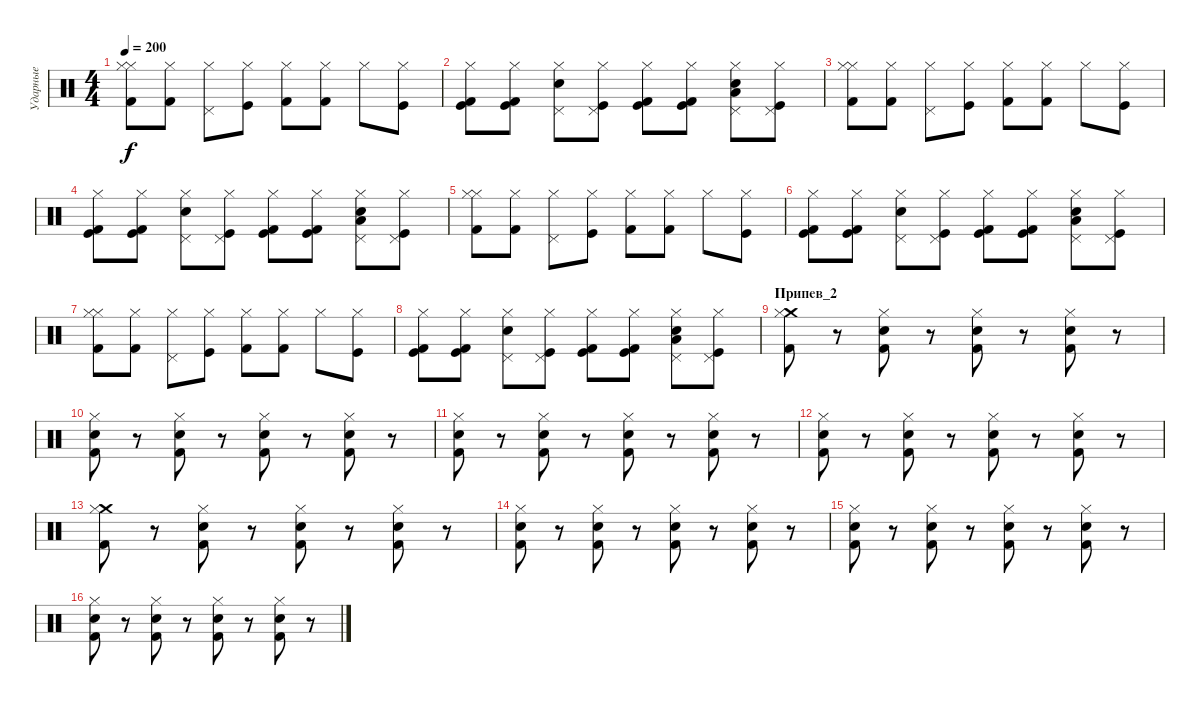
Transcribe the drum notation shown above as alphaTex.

\track ("Ударные" "Ударные") {instrument percussion}
\staff {score}
\articulation defaults
\ts (4 4)
\tempo 200
\clef neutral
\ks c
("Hi-Hat (closed)" "Kick (hit) 2" "Hi-Hat (closed)").8{dy f} ("Hi-Hat (closed)" "Kick (hit) 2").8 ("Hi-Hat (closed)" "Pedal Hi-Hat (hit)").8 ("Hi-Hat (closed)" "Kick (hit)").8 ("Hi-Hat (closed)" "Kick (hit) 2").8 ("Hi-Hat (closed)" "Kick (hit) 2").8 "Hi-Hat (closed)".8 ("Hi-Hat (closed)" "Kick (hit)").8 |
("Kick (hit)" "Kick (hit) 2" "Hi-Hat (closed)").8 ("Kick (hit)" "Kick (hit) 2" "Hi-Hat (closed)").8 ("Electric Snare (hit)" "Pedal Hi-Hat (hit)" "Hi-Hat (closed)").8 ("Pedal Hi-Hat (hit)" "Kick (hit)" "Hi-Hat (closed)").8 ("Kick (hit)" "Kick (hit) 2" "Hi-Hat (closed)").8 ("Kick (hit)" "Kick (hit) 2" "Hi-Hat (closed)").8 ("Low Tom (hit)" "Electric Snare (hit)" "Pedal Hi-Hat (hit)" "Hi-Hat (closed)").8 ("Pedal Hi-Hat (hit)" "Kick (hit)" "Hi-Hat (closed)").8 |
("Hi-Hat (closed)" "Kick (hit) 2" "Hi-Hat (closed)").8 ("Hi-Hat (closed)" "Kick (hit) 2").8 ("Hi-Hat (closed)" "Pedal Hi-Hat (hit)").8 ("Hi-Hat (closed)" "Kick (hit)").8 ("Hi-Hat (closed)" "Kick (hit) 2").8 ("Hi-Hat (closed)" "Kick (hit) 2").8 "Hi-Hat (closed)".8 ("Hi-Hat (closed)" "Kick (hit)").8 |
("Kick (hit)" "Kick (hit) 2" "Hi-Hat (closed)").8 ("Kick (hit)" "Kick (hit) 2" "Hi-Hat (closed)").8 ("Electric Snare (hit)" "Pedal Hi-Hat (hit)" "Hi-Hat (closed)").8 ("Pedal Hi-Hat (hit)" "Kick (hit)" "Hi-Hat (closed)").8 ("Kick (hit)" "Kick (hit) 2" "Hi-Hat (closed)").8 ("Kick (hit)" "Kick (hit) 2" "Hi-Hat (closed)").8 ("Low Tom (hit)" "Electric Snare (hit)" "Pedal Hi-Hat (hit)" "Hi-Hat (closed)").8 ("Pedal Hi-Hat (hit)" "Kick (hit)" "Hi-Hat (closed)").8 |
("Hi-Hat (closed)" "Kick (hit) 2" "Hi-Hat (closed)").8 ("Hi-Hat (closed)" "Kick (hit) 2").8 ("Hi-Hat (closed)" "Pedal Hi-Hat (hit)").8 ("Hi-Hat (closed)" "Kick (hit)").8 ("Hi-Hat (closed)" "Kick (hit) 2").8 ("Hi-Hat (closed)" "Kick (hit) 2").8 "Hi-Hat (closed)".8 ("Hi-Hat (closed)" "Kick (hit)").8 |
("Kick (hit)" "Kick (hit) 2" "Hi-Hat (closed)").8 ("Kick (hit)" "Kick (hit) 2" "Hi-Hat (closed)").8 ("Electric Snare (hit)" "Pedal Hi-Hat (hit)" "Hi-Hat (closed)").8 ("Pedal Hi-Hat (hit)" "Kick (hit)" "Hi-Hat (closed)").8 ("Kick (hit)" "Kick (hit) 2" "Hi-Hat (closed)").8 ("Kick (hit)" "Kick (hit) 2" "Hi-Hat (closed)").8 ("Low Tom (hit)" "Electric Snare (hit)" "Pedal Hi-Hat (hit)" "Hi-Hat (closed)").8 ("Pedal Hi-Hat (hit)" "Kick (hit)" "Hi-Hat (closed)").8 |
("Hi-Hat (closed)" "Kick (hit) 2" "Hi-Hat (closed)").8 ("Hi-Hat (closed)" "Kick (hit) 2").8 ("Hi-Hat (closed)" "Pedal Hi-Hat (hit)").8 ("Hi-Hat (closed)" "Kick (hit)").8 ("Hi-Hat (closed)" "Kick (hit) 2").8 ("Hi-Hat (closed)" "Kick (hit) 2").8 "Hi-Hat (closed)".8 ("Hi-Hat (closed)" "Kick (hit)").8 |
("Kick (hit)" "Kick (hit) 2" "Hi-Hat (closed)").8 ("Kick (hit)" "Kick (hit) 2" "Hi-Hat (closed)").8 ("Electric Snare (hit)" "Pedal Hi-Hat (hit)" "Hi-Hat (closed)").8 ("Pedal Hi-Hat (hit)" "Kick (hit)" "Hi-Hat (closed)").8 ("Kick (hit)" "Kick (hit) 2" "Hi-Hat (closed)").8 ("Kick (hit)" "Kick (hit) 2" "Hi-Hat (closed)").8 ("Low Tom (hit)" "Electric Snare (hit)" "Pedal Hi-Hat (hit)" "Hi-Hat (closed)").8 ("Pedal Hi-Hat (hit)" "Kick (hit)" "Hi-Hat (closed)").8 |
\section ("" "Припев_2")
("Crash medium (hit)" "Kick (hit) 2" "Hi-Hat (closed)").8 r.8 ("Snare (hit) 2" "Kick (hit) 2" "Hi-Hat (closed)").8 r.8 ("Snare (hit) 2" "Kick (hit) 2" "Hi-Hat (closed)").8 r.8 ("Snare (hit) 2" "Kick (hit) 2" "Hi-Hat (closed)").8 r.8 |
("Snare (hit) 2" "Kick (hit) 2" "Hi-Hat (closed)").8 r.8 ("Snare (hit) 2" "Kick (hit) 2" "Hi-Hat (closed)").8 r.8 ("Snare (hit) 2" "Kick (hit) 2" "Hi-Hat (closed)").8 r.8 ("Snare (hit) 2" "Kick (hit) 2" "Hi-Hat (closed)").8 r.8 |
("Snare (hit) 2" "Kick (hit) 2" "Hi-Hat (closed)").8 r.8 ("Snare (hit) 2" "Kick (hit) 2" "Hi-Hat (closed)").8 r.8 ("Snare (hit) 2" "Kick (hit) 2" "Hi-Hat (closed)").8 r.8 ("Snare (hit) 2" "Kick (hit) 2" "Hi-Hat (closed)").8 r.8 |
("Snare (hit) 2" "Kick (hit) 2" "Hi-Hat (closed)").8 r.8 ("Snare (hit) 2" "Kick (hit) 2" "Hi-Hat (closed)").8 r.8 ("Snare (hit) 2" "Kick (hit) 2" "Hi-Hat (closed)").8 r.8 ("Snare (hit) 2" "Kick (hit) 2" "Hi-Hat (closed)").8 r.8 |
("Crash medium (hit)" "Kick (hit) 2" "Hi-Hat (closed)").8 r.8 ("Snare (hit) 2" "Kick (hit) 2" "Hi-Hat (closed)").8 r.8 ("Snare (hit) 2" "Kick (hit) 2" "Hi-Hat (closed)").8 r.8 ("Snare (hit) 2" "Kick (hit) 2" "Hi-Hat (closed)").8 r.8 |
("Snare (hit) 2" "Kick (hit) 2" "Hi-Hat (closed)").8 r.8 ("Snare (hit) 2" "Kick (hit) 2" "Hi-Hat (closed)").8 r.8 ("Snare (hit) 2" "Kick (hit) 2" "Hi-Hat (closed)").8 r.8 ("Snare (hit) 2" "Kick (hit) 2" "Hi-Hat (closed)").8 r.8 |
("Snare (hit) 2" "Kick (hit) 2" "Hi-Hat (closed)").8 r.8 ("Snare (hit) 2" "Kick (hit) 2" "Hi-Hat (closed)").8 r.8 ("Snare (hit) 2" "Kick (hit) 2" "Hi-Hat (closed)").8 r.8 ("Snare (hit) 2" "Kick (hit) 2" "Hi-Hat (closed)").8 r.8 |
("Snare (hit) 2" "Kick (hit) 2" "Hi-Hat (closed)").8 r.8 ("Snare (hit) 2" "Kick (hit) 2" "Hi-Hat (closed)").8 r.8 ("Snare (hit) 2" "Kick (hit) 2" "Hi-Hat (closed)").8 r.8 ("Snare (hit) 2" "Kick (hit) 2" "Hi-Hat (closed)").8 r.8
